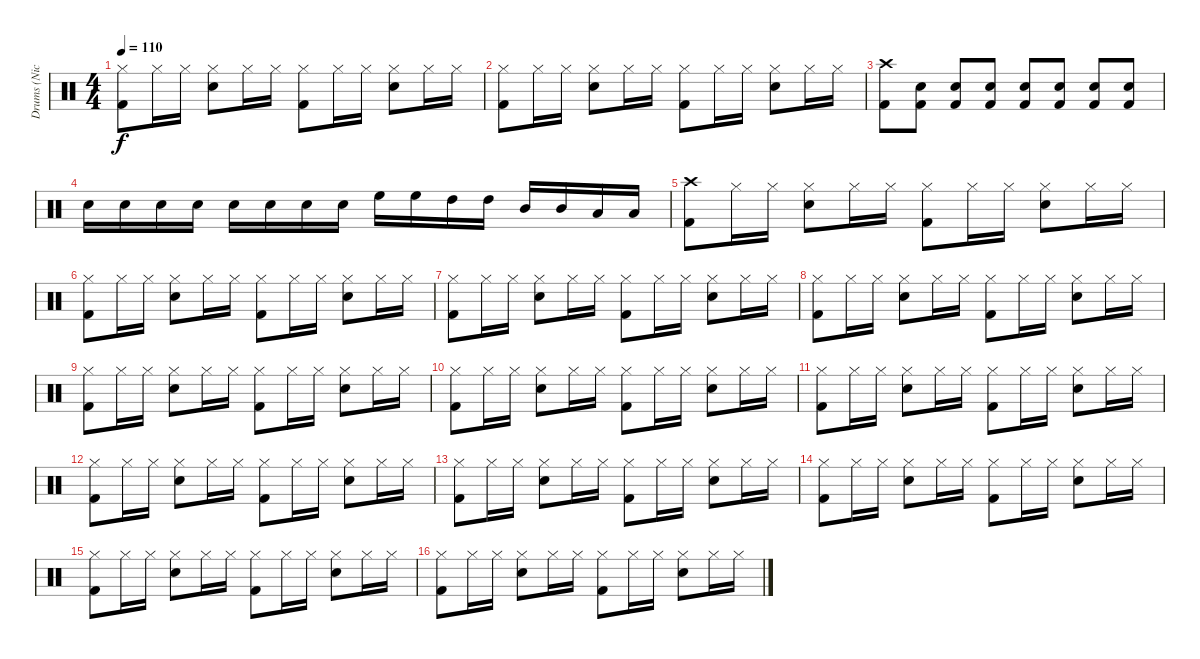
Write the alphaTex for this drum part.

\track ("Drums (Nicko)" "Drums (Nic") {instrument percussion}
\staff {score}
\articulation defaults
\ts (4 4)
\tempo 110
\clef neutral
\ks c
("Hi-Hat (closed)" "Kick (hit) 2").8{dy f} "Hi-Hat (closed)".16 "Hi-Hat (closed)".16 ("Hi-Hat (closed)" "Snare (hit) 2").8 "Hi-Hat (closed)".16 "Hi-Hat (closed)".16 ("Hi-Hat (closed)" "Kick (hit) 2").8 "Hi-Hat (closed)".16 "Hi-Hat (closed)".16 ("Hi-Hat (closed)" "Snare (hit) 2").8 "Hi-Hat (closed)".16 "Hi-Hat (closed)".16 |
("Hi-Hat (closed)" "Kick (hit) 2").8 "Hi-Hat (closed)".16 "Hi-Hat (closed)".16 ("Hi-Hat (closed)" "Snare (hit) 2").8 "Hi-Hat (closed)".16 "Hi-Hat (closed)".16 ("Hi-Hat (closed)" "Kick (hit) 2").8 "Hi-Hat (closed)".16 "Hi-Hat (closed)".16 ("Hi-Hat (closed)" "Snare (hit) 2").8 "Hi-Hat (closed)".16 "Hi-Hat (closed)".16 |
("Crash high (hit)" "Kick (hit) 2").8 ("Kick (hit) 2" "Snare (hit) 2").8 ("Kick (hit) 2" "Snare (hit) 2").8 ("Kick (hit) 2" "Snare (hit) 2").8 ("Kick (hit) 2" "Snare (hit) 2").8 ("Kick (hit) 2" "Snare (hit) 2").8 ("Kick (hit) 2" "Snare (hit) 2").8 ("Kick (hit) 2" "Snare (hit) 2").8 |
"Snare (hit) 2".16 "Snare (hit) 2".16 "Snare (hit) 2".16 "Snare (hit) 2".16 "Snare (hit) 2".16 "Snare (hit) 2".16 "Snare (hit) 2".16 "Snare (hit) 2".16 "High Floor Tom (hit)".16 "High Floor Tom (hit)".16 "High Tom (hit)".16 "High Tom (hit)".16 "Mid Tom (hit)".16 "Mid Tom (hit)".16 "Low Tom (hit)".16 "Low Tom (hit)".16 |
("Crash high (hit)" "Kick (hit) 2").8 "Hi-Hat (closed)".16 "Hi-Hat (closed)".16 ("Hi-Hat (closed)" "Snare (hit) 2").8 "Hi-Hat (closed)".16 "Hi-Hat (closed)".16 ("Hi-Hat (closed)" "Kick (hit) 2").8 "Hi-Hat (closed)".16 "Hi-Hat (closed)".16 ("Hi-Hat (closed)" "Snare (hit) 2").8 "Hi-Hat (closed)".16 "Hi-Hat (closed)".16 |
("Hi-Hat (closed)" "Kick (hit) 2").8 "Hi-Hat (closed)".16 "Hi-Hat (closed)".16 ("Hi-Hat (closed)" "Snare (hit) 2").8 "Hi-Hat (closed)".16 "Hi-Hat (closed)".16 ("Hi-Hat (closed)" "Kick (hit) 2").8 "Hi-Hat (closed)".16 "Hi-Hat (closed)".16 ("Hi-Hat (closed)" "Snare (hit) 2").8 "Hi-Hat (closed)".16 "Hi-Hat (closed)".16 |
("Hi-Hat (closed)" "Kick (hit) 2").8 "Hi-Hat (closed)".16 "Hi-Hat (closed)".16 ("Hi-Hat (closed)" "Snare (hit) 2").8 "Hi-Hat (closed)".16 "Hi-Hat (closed)".16 ("Hi-Hat (closed)" "Kick (hit) 2").8 "Hi-Hat (closed)".16 "Hi-Hat (closed)".16 ("Hi-Hat (closed)" "Snare (hit) 2").8 "Hi-Hat (closed)".16 "Hi-Hat (closed)".16 |
("Hi-Hat (closed)" "Kick (hit) 2").8 "Hi-Hat (closed)".16 "Hi-Hat (closed)".16 ("Hi-Hat (closed)" "Snare (hit) 2").8 "Hi-Hat (closed)".16 "Hi-Hat (closed)".16 ("Hi-Hat (closed)" "Kick (hit) 2").8 "Hi-Hat (closed)".16 "Hi-Hat (closed)".16 ("Hi-Hat (closed)" "Snare (hit) 2").8 "Hi-Hat (closed)".16 "Hi-Hat (closed)".16 |
("Hi-Hat (closed)" "Kick (hit) 2").8 "Hi-Hat (closed)".16 "Hi-Hat (closed)".16 ("Hi-Hat (closed)" "Snare (hit) 2").8 "Hi-Hat (closed)".16 "Hi-Hat (closed)".16 ("Hi-Hat (closed)" "Kick (hit) 2").8 "Hi-Hat (closed)".16 "Hi-Hat (closed)".16 ("Hi-Hat (closed)" "Snare (hit) 2").8 "Hi-Hat (closed)".16 "Hi-Hat (closed)".16 |
("Hi-Hat (closed)" "Kick (hit) 2").8 "Hi-Hat (closed)".16 "Hi-Hat (closed)".16 ("Hi-Hat (closed)" "Snare (hit) 2").8 "Hi-Hat (closed)".16 "Hi-Hat (closed)".16 ("Hi-Hat (closed)" "Kick (hit) 2").8 "Hi-Hat (closed)".16 "Hi-Hat (closed)".16 ("Hi-Hat (closed)" "Snare (hit) 2").8 "Hi-Hat (closed)".16 "Hi-Hat (closed)".16 |
("Hi-Hat (closed)" "Kick (hit) 2").8 "Hi-Hat (closed)".16 "Hi-Hat (closed)".16 ("Hi-Hat (closed)" "Snare (hit) 2").8 "Hi-Hat (closed)".16 "Hi-Hat (closed)".16 ("Hi-Hat (closed)" "Kick (hit) 2").8 "Hi-Hat (closed)".16 "Hi-Hat (closed)".16 ("Hi-Hat (closed)" "Snare (hit) 2").8 "Hi-Hat (closed)".16 "Hi-Hat (closed)".16 |
("Hi-Hat (closed)" "Kick (hit) 2").8 "Hi-Hat (closed)".16 "Hi-Hat (closed)".16 ("Hi-Hat (closed)" "Snare (hit) 2").8 "Hi-Hat (closed)".16 "Hi-Hat (closed)".16 ("Hi-Hat (closed)" "Kick (hit) 2").8 "Hi-Hat (closed)".16 "Hi-Hat (closed)".16 ("Hi-Hat (closed)" "Snare (hit) 2").8 "Hi-Hat (closed)".16 "Hi-Hat (closed)".16 |
("Hi-Hat (closed)" "Kick (hit) 2").8 "Hi-Hat (closed)".16 "Hi-Hat (closed)".16 ("Hi-Hat (closed)" "Snare (hit) 2").8 "Hi-Hat (closed)".16 "Hi-Hat (closed)".16 ("Hi-Hat (closed)" "Kick (hit) 2").8 "Hi-Hat (closed)".16 "Hi-Hat (closed)".16 ("Hi-Hat (closed)" "Snare (hit) 2").8 "Hi-Hat (closed)".16 "Hi-Hat (closed)".16 |
("Hi-Hat (closed)" "Kick (hit) 2").8 "Hi-Hat (closed)".16 "Hi-Hat (closed)".16 ("Hi-Hat (closed)" "Snare (hit) 2").8 "Hi-Hat (closed)".16 "Hi-Hat (closed)".16 ("Hi-Hat (closed)" "Kick (hit) 2").8 "Hi-Hat (closed)".16 "Hi-Hat (closed)".16 ("Hi-Hat (closed)" "Snare (hit) 2").8 "Hi-Hat (closed)".16 "Hi-Hat (closed)".16 |
("Hi-Hat (closed)" "Kick (hit) 2").8 "Hi-Hat (closed)".16 "Hi-Hat (closed)".16 ("Hi-Hat (closed)" "Snare (hit) 2").8 "Hi-Hat (closed)".16 "Hi-Hat (closed)".16 ("Hi-Hat (closed)" "Kick (hit) 2").8 "Hi-Hat (closed)".16 "Hi-Hat (closed)".16 ("Hi-Hat (closed)" "Snare (hit) 2").8 "Hi-Hat (closed)".16 "Hi-Hat (closed)".16 |
("Hi-Hat (closed)" "Kick (hit) 2").8 "Hi-Hat (closed)".16 "Hi-Hat (closed)".16 ("Hi-Hat (closed)" "Snare (hit) 2").8 "Hi-Hat (closed)".16 "Hi-Hat (closed)".16 ("Hi-Hat (closed)" "Kick (hit) 2").8 "Hi-Hat (closed)".16 "Hi-Hat (closed)".16 ("Hi-Hat (closed)" "Snare (hit) 2").8 "Hi-Hat (closed)".16 "Hi-Hat (closed)".16
